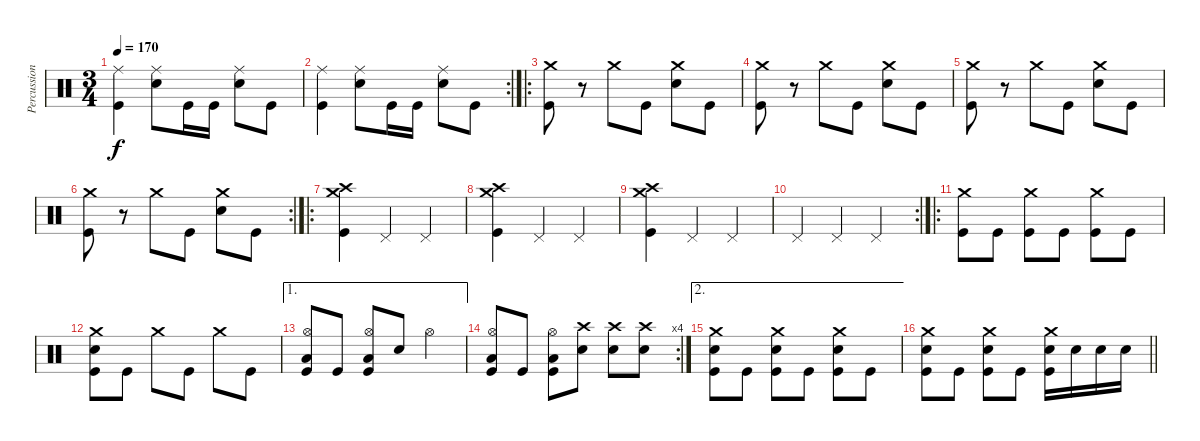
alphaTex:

\track ("Percussion" "Percussion") {instrument percussion}
\staff {score}
\articulation defaults
\ts (3 4)
\tempo 170
\clef neutral
\ks c
("Ride (middle)" "Kick (hit)").4{dy f} ("Ride (middle)" "Snare (hit) 2").8 "Kick (hit)".16 "Kick (hit)".16 ("Ride (middle)" "Snare (hit) 2").8 "Kick (hit)".8 |
\rc 2
("Ride (middle)" "Kick (hit)").4 ("Ride (middle)" "Snare (hit) 2").8 "Kick (hit)".16 "Kick (hit)".16 ("Ride (middle)" "Snare (hit) 2").8 "Kick (hit)".8 |
\ro
("Crash medium (hit)" "Kick (hit)").8 r.8 "Crash medium (hit)".8 "Kick (hit)".8 ("Crash medium (hit)" "Snare (hit) 2").8 "Kick (hit)".8 |
("Crash medium (hit)" "Kick (hit)").8 r.8 "Crash medium (hit)".8 "Kick (hit)".8 ("Crash medium (hit)" "Snare (hit) 2").8 "Kick (hit)".8 |
("Crash medium (hit)" "Kick (hit)").8 r.8 "Crash medium (hit)".8 "Kick (hit)".8 ("Crash medium (hit)" "Snare (hit) 2").8 "Kick (hit)".8 |
\rc 2
("Crash medium (hit)" "Kick (hit)").8 r.8 "Crash medium (hit)".8 "Kick (hit)".8 ("Crash medium (hit)" "Snare (hit) 2").8 "Kick (hit)".8 |
\ro
("Crash medium (hit)" "Crash high (hit)" "Kick (hit)").4 "Pedal Hi-Hat (hit)".4 "Pedal Hi-Hat (hit)".4 |
("Crash medium (hit)" "Crash high (hit)" "Kick (hit)").4 "Pedal Hi-Hat (hit)".4 "Pedal Hi-Hat (hit)".4 |
("Crash medium (hit)" "Crash high (hit)" "Kick (hit)").4 "Pedal Hi-Hat (hit)".4 "Pedal Hi-Hat (hit)".4 |
\rc 2 "Pedal Hi-Hat (hit)".4 "Pedal Hi-Hat (hit)".4 "Pedal Hi-Hat (hit)".4
|
\ro
("Crash medium (hit)" "Kick (hit)").8 "Kick (hit)".8 ("Crash medium (hit)" "Kick (hit)").8 "Kick (hit)".8 ("Crash medium (hit)" "Kick (hit)").8 "Kick (hit)".8 |
("Crash medium (hit)" "Snare (hit) 2" "Kick (hit)").8 "Kick (hit)".8 "Crash medium (hit)".8 "Kick (hit)".8 "Crash medium (hit)".8 "Kick (hit)".8 |
\ae 1
("Hi-Hat (open)" "Low Floor Tom (hit)" "Kick (hit)").8 "Kick (hit)".8 ("Hi-Hat (open)" "Low Floor Tom (hit)" "Kick (hit)").8 "Snare (hit) 2".8 "Hi-Hat (open)".4 |
\rc 4
("Hi-Hat (open)" "Low Floor Tom (hit)" "Kick (hit)").8 "Kick (hit)".8 ("Hi-Hat (open)" "Low Floor Tom (hit)" "Kick (hit)").8 ("Crash high (hit)" "Snare (hit) 2").8 ("Crash high (hit)" "Snare (hit) 2").8 ("Crash high (hit)" "Snare (hit) 2").8 |
\ae 2
("Crash medium (hit)" "Snare (hit) 2" "Kick (hit)").8 "Kick (hit)".8 ("Crash medium (hit)" "Snare (hit) 2" "Kick (hit)").8 "Kick (hit)".8 ("Crash medium (hit)" "Snare (hit) 2" "Kick (hit)").8 "Kick (hit)".8 |
\barLineRight lightlight
("Crash medium (hit)" "Snare (hit) 2" "Kick (hit)").8 "Kick (hit)".8 ("Crash medium (hit)" "Snare (hit) 2" "Kick (hit)").8 "Kick (hit)".8 ("Crash medium (hit)" "Snare (hit) 2" "Kick (hit)").16 "Snare (hit) 2".16 "Snare (hit) 2".16 "Snare (hit) 2".16
